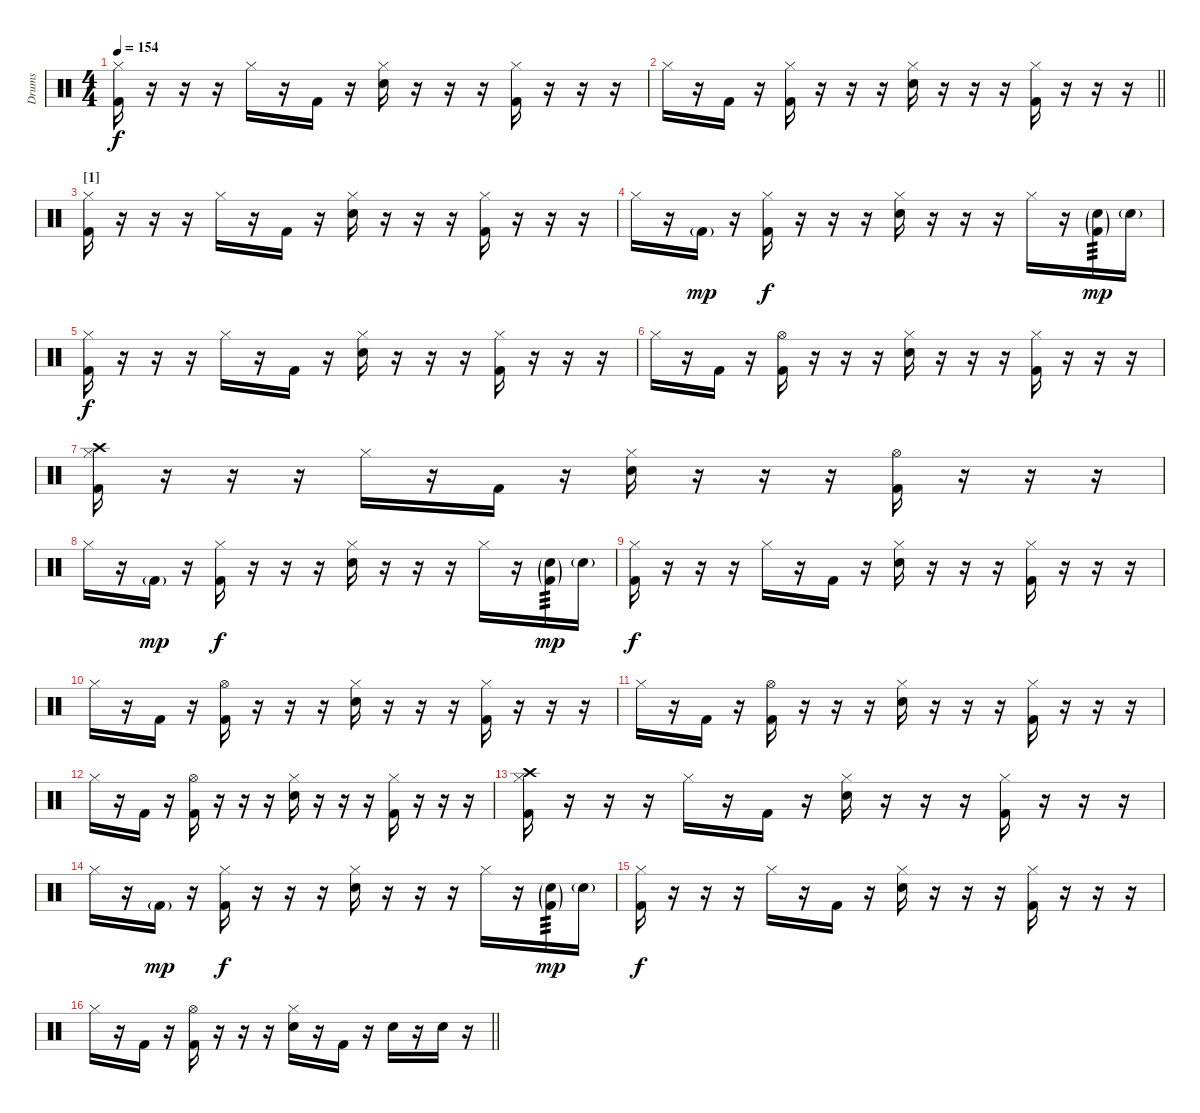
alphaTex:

\track ("Drums" "Drums") {instrument percussion}
\staff {score}
\articulation defaults
\ts (4 4)
\tempo 154
\clef neutral
\ks c
("Hi-Hat (closed)" "Kick (hit) 2").16{dy f} r.16 r.16 r.16 "Hi-Hat (closed)".16 r.16 "Kick (hit) 2".16 r.16 ("Hi-Hat (closed)" "Electric Snare (hit)").16 r.16 r.16 r.16 ("Hi-Hat (closed)" "Kick (hit) 2").16 r.16 r.16 r.16 |
\barLineRight lightlight "Hi-Hat (closed)".16
r.16 "Kick (hit) 2".16 r.16 ("Hi-Hat (closed)" "Kick (hit) 2").16 r.16 r.16 r.16 ("Hi-Hat (closed)" "Electric Snare (hit)").16 r.16 r.16 r.16 ("Hi-Hat (closed)" "Kick (hit) 2").16 r.16 r.16 r.16 |
\section ("" "[1]")
("Hi-Hat (closed)" "Kick (hit) 2").16 r.16 r.16 r.16 "Hi-Hat (closed)".16 r.16 "Kick (hit) 2".16 r.16 ("Hi-Hat (closed)" "Electric Snare (hit)").16 r.16 r.16 r.16 ("Hi-Hat (closed)" "Kick (hit) 2").16 r.16 r.16 r.16 |
"Hi-Hat (closed)".16 r.16 "Kick (hit) 2"{g}.16{dy mp} r.16 ("Hi-Hat (closed)" "Kick (hit) 2").16{dy f} r.16 r.16 r.16 ("Hi-Hat (closed)" "Electric Snare (hit)").16 r.16 r.16 r.16 "Hi-Hat (closed)".16 r.16 ("Electric Snare (hit)"{g} "Kick (hit) 2"{g}).16{tp 3 dy mp} "Electric Snare (hit)"{g}.16 |
("Hi-Hat (closed)" "Kick (hit) 2").16{dy f} r.16 r.16 r.16 "Hi-Hat (closed)".16 r.16 "Kick (hit) 2".16 r.16 ("Hi-Hat (closed)" "Electric Snare (hit)").16 r.16 r.16 r.16 ("Hi-Hat (closed)" "Kick (hit) 2").16 r.16 r.16 r.16 |
"Hi-Hat (closed)".16 r.16 "Kick (hit) 2".16 r.16 ("Hi-Hat (open)" "Kick (hit) 2").16 r.16 r.16 r.16 ("Hi-Hat (closed)" "Electric Snare (hit)").16 r.16 r.16 r.16 ("Hi-Hat (closed)" "Kick (hit) 2").16 r.16 r.16 r.16 |
("Crash high (hit)" "Hi-Hat (closed)" "Kick (hit) 2").16 r.16 r.16 r.16 "Hi-Hat (closed)".16 r.16 "Kick (hit) 2".16 r.16 ("Hi-Hat (closed)" "Electric Snare (hit)").16 r.16 r.16 r.16 ("Hi-Hat (open)" "Kick (hit) 2").16 r.16 r.16 r.16 |
"Hi-Hat (closed)".16 r.16 "Kick (hit) 2"{g}.16{dy mp} r.16 ("Hi-Hat (closed)" "Kick (hit) 2").16{dy f} r.16 r.16 r.16 ("Hi-Hat (closed)" "Electric Snare (hit)").16 r.16 r.16 r.16 "Hi-Hat (closed)".16 r.16 ("Electric Snare (hit)"{g} "Kick (hit) 2"{g}).16{tp 3 dy mp} "Electric Snare (hit)"{g}.16 |
("Hi-Hat (closed)" "Kick (hit) 2").16{dy f} r.16 r.16 r.16 "Hi-Hat (closed)".16 r.16 "Kick (hit) 2".16 r.16 ("Hi-Hat (closed)" "Electric Snare (hit)").16 r.16 r.16 r.16 ("Hi-Hat (closed)" "Kick (hit) 2").16 r.16 r.16 r.16 |
"Hi-Hat (closed)".16 r.16 "Kick (hit) 2".16 r.16 ("Hi-Hat (open)" "Kick (hit) 2").16 r.16 r.16 r.16 ("Hi-Hat (closed)" "Electric Snare (hit)").16 r.16 r.16 r.16 ("Hi-Hat (closed)" "Kick (hit) 2").16 r.16 r.16 r.16 |
"Hi-Hat (closed)".16 r.16 "Kick (hit) 2".16 r.16 ("Hi-Hat (open)" "Kick (hit) 2").16 r.16 r.16 r.16 ("Hi-Hat (closed)" "Electric Snare (hit)").16 r.16 r.16 r.16 ("Hi-Hat (closed)" "Kick (hit) 2").16 r.16 r.16 r.16 |
"Hi-Hat (closed)".16 r.16 "Kick (hit) 2".16 r.16 ("Hi-Hat (open)" "Kick (hit) 2").16 r.16 r.16 r.16 ("Hi-Hat (closed)" "Electric Snare (hit)").16 r.16 r.16 r.16 ("Hi-Hat (closed)" "Kick (hit) 2").16 r.16 r.16 r.16 |
("Crash high (hit)" "Hi-Hat (closed)" "Kick (hit) 2").16 r.16 r.16 r.16 "Hi-Hat (closed)".16 r.16 "Kick (hit) 2".16 r.16 ("Hi-Hat (closed)" "Electric Snare (hit)").16 r.16 r.16 r.16 ("Hi-Hat (closed)" "Kick (hit) 2").16 r.16 r.16 r.16 |
"Hi-Hat (closed)".16 r.16 "Kick (hit) 2"{g}.16{dy mp} r.16 ("Hi-Hat (closed)" "Kick (hit) 2").16{dy f} r.16 r.16 r.16 ("Hi-Hat (closed)" "Electric Snare (hit)").16 r.16 r.16 r.16 "Hi-Hat (closed)".16 r.16 ("Electric Snare (hit)"{g} "Kick (hit) 2"{g}).16{tp 3 dy mp} "Electric Snare (hit)"{g}.16 |
("Hi-Hat (closed)" "Kick (hit) 2").16{dy f} r.16 r.16 r.16 "Hi-Hat (closed)".16 r.16 "Kick (hit) 2".16 r.16 ("Hi-Hat (closed)" "Electric Snare (hit)").16 r.16 r.16 r.16 ("Hi-Hat (closed)" "Kick (hit) 2").16 r.16 r.16 r.16 |
\barLineRight lightlight "Hi-Hat (closed)".16
r.16 "Kick (hit) 2".16 r.16 ("Hi-Hat (open)" "Kick (hit) 2").16 r.16 r.16 r.16 ("Hi-Hat (closed)" "Electric Snare (hit)").16 r.16 "Kick (hit) 2".16 r.16 "Electric Snare (hit)".16 r.16 "Electric Snare (hit)".16 r.16
